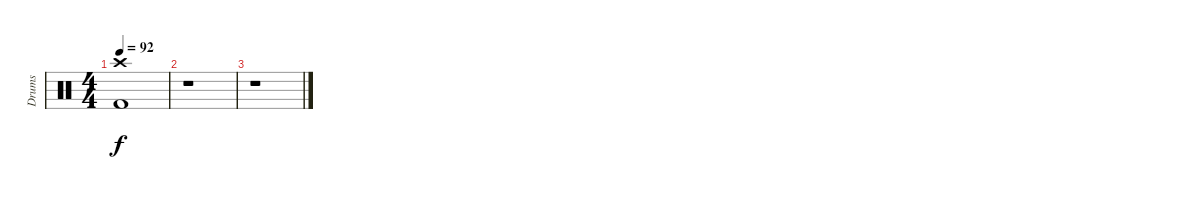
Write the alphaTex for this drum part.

\track ("Drums" "Drums") {instrument percussion}
\staff {score}
\articulation defaults
\ts (4 4)
\tempo 92
\clef neutral
\ks c
("Crash high (hit)" "Kick (hit) 2").1{dy f} |
r.1 |
r.1
